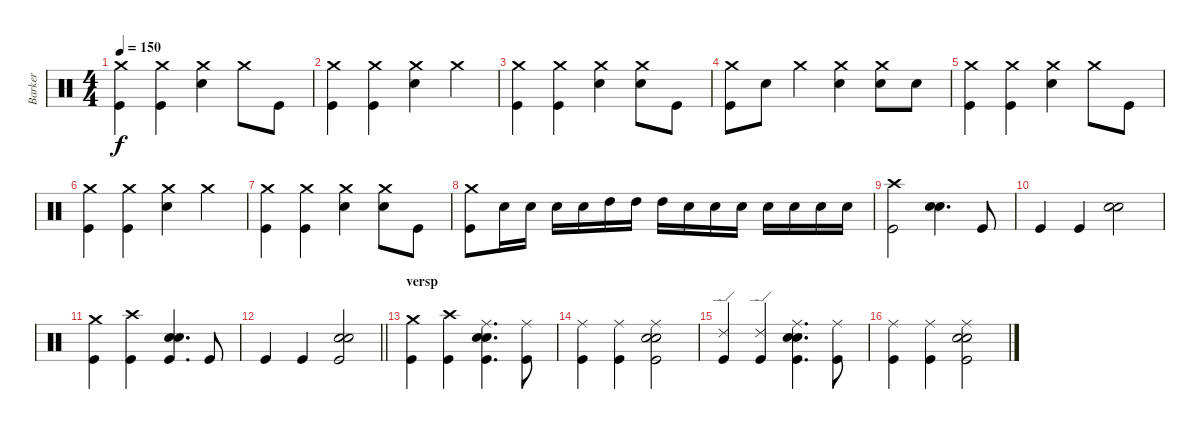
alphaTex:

\track ("Barker" "Barker") {instrument percussion}
\staff {score}
\articulation defaults
\ts (4 4)
\tempo 150
\clef neutral
\ks c
("Crash medium (hit)" "Kick (hit)").4{dy f} ("Crash medium (hit)" "Kick (hit)").4 ("Crash medium (hit)" "Electric Snare (hit)").4 "Crash medium (hit)".8 "Kick (hit)".8 |
("Crash medium (hit)" "Kick (hit)").4 ("Crash medium (hit)" "Kick (hit)").4 ("Crash medium (hit)" "Electric Snare (hit)").4 "Crash medium (hit)".4 |
("Crash medium (hit)" "Kick (hit)").4 ("Crash medium (hit)" "Kick (hit)").4 ("Crash medium (hit)" "Electric Snare (hit)").4 ("Crash medium (hit)" "Electric Snare (hit)").8 "Kick (hit)".8 |
("Crash medium (hit)" "Kick (hit)").8 "Electric Snare (hit)".8 "Crash medium (hit)".4 ("Crash medium (hit)" "Electric Snare (hit)").4 ("Electric Snare (hit)" "Crash medium (hit)").8 "Electric Snare (hit)".8 |
("Crash medium (hit)" "Kick (hit)").4 ("Crash medium (hit)" "Kick (hit)").4 ("Crash medium (hit)" "Electric Snare (hit)").4 "Crash medium (hit)".8 "Kick (hit)".8 |
("Crash medium (hit)" "Kick (hit)").4 ("Crash medium (hit)" "Kick (hit)").4 ("Crash medium (hit)" "Electric Snare (hit)").4 "Crash medium (hit)".4 |
("Crash medium (hit)" "Kick (hit)").4 ("Crash medium (hit)" "Kick (hit)").4 ("Crash medium (hit)" "Electric Snare (hit)").4 ("Crash medium (hit)" "Electric Snare (hit)").8 "Kick (hit)".8 |
("Crash medium (hit)" "Kick (hit)").8 "Electric Snare (hit)".16 "Electric Snare (hit)".16 "Electric Snare (hit)".16 "Electric Snare (hit)".16 "High Tom (hit)".16 "High Tom (hit)".16 "High Tom (hit)".16 "Electric Snare (hit)".16 "Electric Snare (hit)".16 "Electric Snare (hit)".16 "Electric Snare (hit)".16 "Electric Snare (hit)".16 "Electric Snare (hit)".16 "Electric Snare (hit)".16 |
("Kick (hit)" "Crash high (hit)").2 ("Hand Clap (hit)" "Electric Snare (hit)").4{d} "Kick (hit)".8 |
"Kick (hit)".4 "Kick (hit)".4 ("Hand Clap (hit)" "Electric Snare (hit)").2 |
("Crash medium (hit)" "Kick (hit)").4 ("Crash high (hit)" "Kick (hit)").4 ("Hand Clap (hit)" "Electric Snare (hit)" "Kick (hit)").4{d} "Kick (hit)".8 |
\barLineRight lightlight "Kick (hit)".4 "Kick (hit)".4
("Hand Clap (hit)" "Electric Snare (hit)" "Kick (hit)").2 |
\section ("" "versp")
("Crash medium (hit)" "Kick (hit)").4 ("Crash high (hit)" "Kick (hit)").4 ("Ride (middle)" "Hand Clap (hit)" "Electric Snare (hit)" "Kick (hit)").4{d} ("Ride (middle)" "Kick (hit)").8 |
("Kick (hit)" "Ride (middle)").4 ("Kick (hit)" "Ride (middle)").4 ("Ride (middle)" "Hand Clap (hit)" "Electric Snare (hit)" "Kick (hit)").2 |
("Ride (edge) 2" "Kick (hit)").4 ("Ride (edge) 2" "Kick (hit)").4 ("Ride (middle)" "Hand Clap (hit)" "Electric Snare (hit)" "Kick (hit)").4{d} ("Ride (middle)" "Kick (hit)").8 |
("Kick (hit)" "Ride (middle)").4 ("Kick (hit)" "Ride (middle)").4 ("Ride (middle)" "Hand Clap (hit)" "Electric Snare (hit)" "Kick (hit)").2
